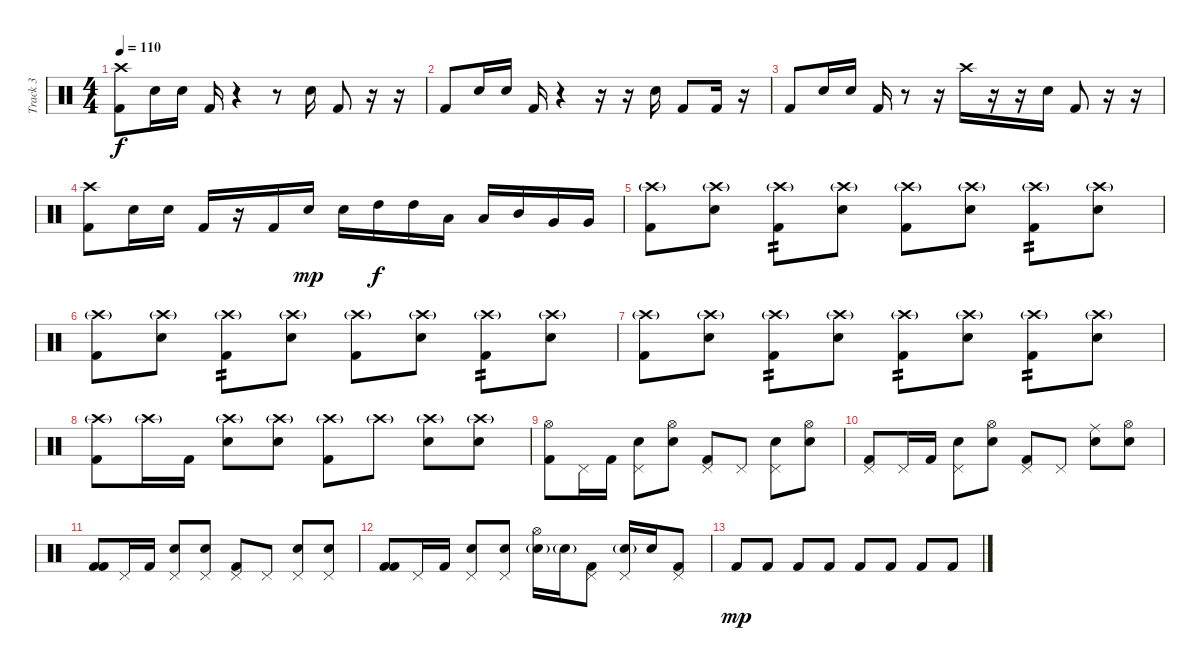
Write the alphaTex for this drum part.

\track ("Track 3" "Track 3") {instrument percussion}
\staff {score}
\articulation defaults
\ts (4 4)
\tempo 110
\clef neutral
\ks c
("Crash high (hit)" "Kick (hit) 2").8{dy f} "Electric Snare (hit)".16 "Electric Snare (hit)".16 "Kick (hit) 2".16 r.4 r.8 "Electric Snare (hit)".16 "Kick (hit) 2".8 r.16 r.16 |
"Kick (hit) 2".8 "Electric Snare (hit)".16 "Electric Snare (hit)".16 "Kick (hit) 2".16 r.4 r.16 r.16 "Electric Snare (hit)".16 "Kick (hit) 2".8 "Kick (hit) 2".16 r.16 |
"Kick (hit) 2".8 "Electric Snare (hit)".16 "Electric Snare (hit)".16 "Kick (hit) 2".16 r.8 r.16 "Crash high (hit)".16 r.16 r.16 "Electric Snare (hit)".16 "Kick (hit) 2".8 r.16 r.16 |
("Crash high (hit)" "Kick (hit) 2").8 "Electric Snare (hit)".16 "Electric Snare (hit)".16 "Kick (hit) 2".16 r.16 "Kick (hit) 2".16 "Electric Snare (hit)".16{dy mp} "Electric Snare (hit)".16 "High Tom (hit)".16{dy f} "High Tom (hit)".16 "Low Tom (hit)".16 "Low Tom (hit)".16 "Mid Tom (hit)".16 "Very Low Tom (hit)".16 "Very Low Tom (hit)".16 |
("Kick (hit) 2" "Crash high (hit)"{g}).8 ("Electric Snare (hit)" "Crash high (hit)"{g}).8 ("Kick (hit) 2" "Crash high (hit)"{g}).8{tp 2} ("Electric Snare (hit)" "Crash high (hit)"{g}).8 ("Kick (hit) 2" "Crash high (hit)"{g}).8 ("Electric Snare (hit)" "Crash high (hit)"{g}).8 ("Kick (hit) 2" "Crash high (hit)"{g}).8{tp 2} ("Electric Snare (hit)" "Crash high (hit)"{g}).8 |
("Kick (hit) 2" "Crash high (hit)"{g}).8 ("Electric Snare (hit)" "Crash high (hit)"{g}).8 ("Kick (hit) 2" "Crash high (hit)"{g}).8{tp 2} ("Electric Snare (hit)" "Crash high (hit)"{g}).8 ("Kick (hit) 2" "Crash high (hit)"{g}).8 ("Electric Snare (hit)" "Crash high (hit)"{g}).8 ("Kick (hit) 2" "Crash high (hit)"{g}).8{tp 2} ("Electric Snare (hit)" "Crash high (hit)"{g}).8 |
("Kick (hit) 2" "Crash high (hit)"{g}).8 ("Electric Snare (hit)" "Crash high (hit)"{g}).8 ("Kick (hit) 2" "Crash high (hit)"{g}).8{tp 2} ("Electric Snare (hit)" "Crash high (hit)"{g}).8 ("Kick (hit) 2" "Crash high (hit)"{g}).8{tp 2} ("Electric Snare (hit)" "Crash high (hit)"{g}).8 ("Kick (hit) 2" "Crash high (hit)"{g}).8{tp 2} ("Electric Snare (hit)" "Crash high (hit)"{g}).8 |
("Kick (hit) 2" "Crash high (hit)"{g}).8 "Crash high (hit)"{g}.16 "Kick (hit) 2".16 ("Electric Snare (hit)" "Crash high (hit)"{g}).8 ("Electric Snare (hit)" "Crash high (hit)"{g}).8 ("Kick (hit) 2" "Crash high (hit)"{g}).8 "Crash high (hit)"{g}.8 ("Electric Snare (hit)" "Crash high (hit)"{g}).8 ("Electric Snare (hit)" "Crash high (hit)"{g}).8 |
("Kick (hit) 2" "Hi-Hat (open)").8 "Pedal Hi-Hat (hit)".16 "Kick (hit) 2".16 ("Electric Snare (hit)" "Pedal Hi-Hat (hit)").8 ("Electric Snare (hit)" "Hi-Hat (open)").8 ("Kick (hit) 2" "Pedal Hi-Hat (hit)").8 "Pedal Hi-Hat (hit)".8 ("Electric Snare (hit)" "Pedal Hi-Hat (hit)").8 ("Electric Snare (hit)" "Hi-Hat (open)").8 |
("Kick (hit) 2" "Pedal Hi-Hat (hit)").8 "Pedal Hi-Hat (hit)".16 "Kick (hit) 2".16 ("Electric Snare (hit)" "Pedal Hi-Hat (hit)").8 ("Electric Snare (hit)" "Hi-Hat (open)").8 ("Kick (hit) 2" "Pedal Hi-Hat (hit)").8 "Pedal Hi-Hat (hit)".8 ("Electric Snare (hit)" "Ride (middle)").8 ("Electric Snare (hit)" "Hi-Hat (open)").8 |
("Kick (hit) 2" "Kick (hit) 2").8 "Pedal Hi-Hat (hit)".16 "Kick (hit) 2".16 ("Electric Snare (hit)" "Pedal Hi-Hat (hit)").8 ("Electric Snare (hit)" "Pedal Hi-Hat (hit)").8 ("Kick (hit) 2" "Pedal Hi-Hat (hit)").8 "Pedal Hi-Hat (hit)".8 ("Electric Snare (hit)" "Pedal Hi-Hat (hit)").8 ("Electric Snare (hit)" "Pedal Hi-Hat (hit)").8 |
("Kick (hit) 2" "Kick (hit) 2").8 "Pedal Hi-Hat (hit)".16 "Kick (hit) 2".16 ("Electric Snare (hit)" "Pedal Hi-Hat (hit)").8 ("Electric Snare (hit)" "Pedal Hi-Hat (hit)").8 ("Electric Snare (hit)"{g} "Hi-Hat (open)").16 "Electric Snare (hit)"{g}.16 ("Kick (hit) 2" "Pedal Hi-Hat (hit)").8 ("Electric Snare (hit)"{g} "Pedal Hi-Hat (hit)").16 "Electric Snare (hit)".16 ("Kick (hit) 2" "Pedal Hi-Hat (hit)").8 |
"Kick (hit) 2".8{dy mp} "Kick (hit) 2".8 "Kick (hit) 2".8 "Kick (hit) 2".8 "Kick (hit) 2".8 "Kick (hit) 2".8 "Kick (hit) 2".8 "Kick (hit) 2".8
